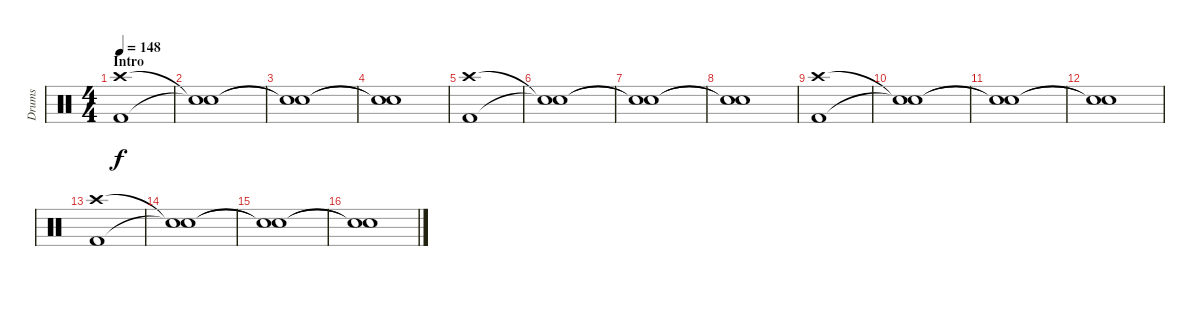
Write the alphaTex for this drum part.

\track ("Drums" "Drums") {instrument percussion}
\staff {score}
\articulation defaults
\ts (4 4)
\section ("" "Intro")
\tempo 148
\clef neutral
\ks c
("Crash high (hit)" "Kick (hit) 2").1{dy f} |
("Snare (hit)"{t} "Snare (hit)"{t}).1 |
("Snare (hit)"{t} "Snare (hit)"{t}).1 |
("Snare (hit)"{t} "Snare (hit)"{t}).1 |
("Crash high (hit)" "Kick (hit) 2").1 |
("Snare (hit)"{t} "Snare (hit)"{t}).1 |
("Snare (hit)"{t} "Snare (hit)"{t}).1 |
("Snare (hit)"{t} "Snare (hit)"{t}).1 |
("Crash high (hit)" "Kick (hit) 2").1 |
("Snare (hit)"{t} "Snare (hit)"{t}).1 |
("Snare (hit)"{t} "Snare (hit)"{t}).1 |
("Snare (hit)"{t} "Snare (hit)"{t}).1 |
("Crash high (hit)" "Kick (hit) 2").1 |
("Snare (hit)"{t} "Snare (hit)"{t}).1 |
("Snare (hit)"{t} "Snare (hit)"{t}).1 |
("Snare (hit)"{t} "Snare (hit)"{t}).1
